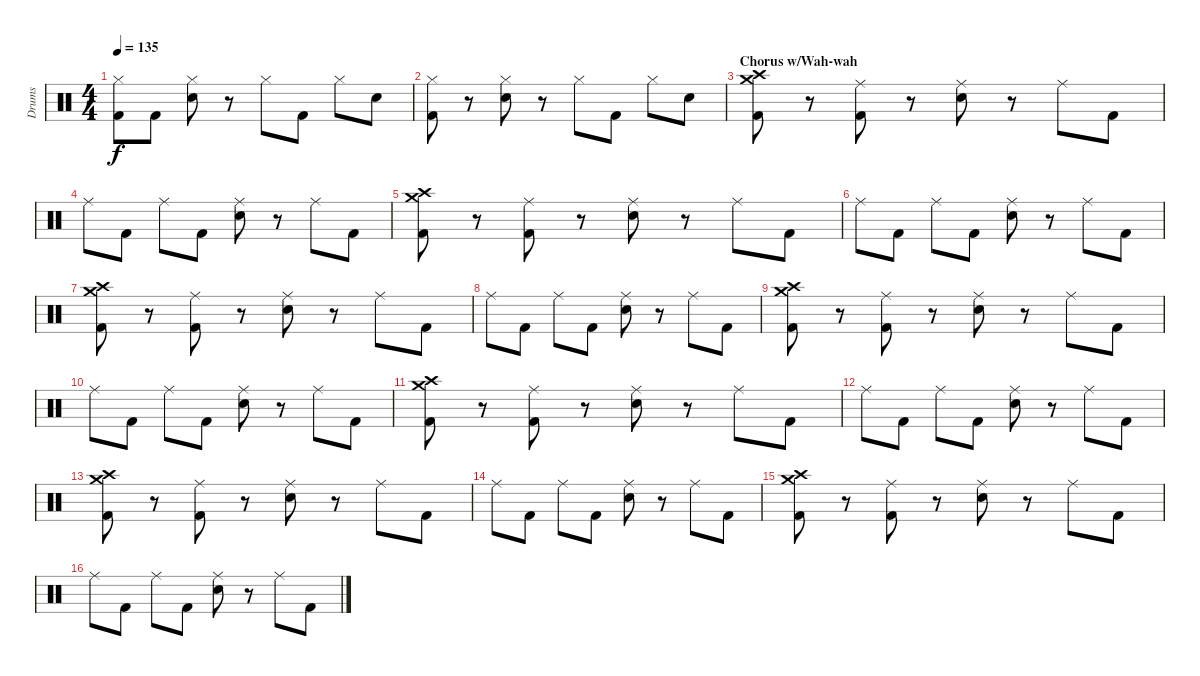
\track ("Drums" "Drums") {instrument percussion}
\staff {score}
\articulation defaults
\ts (4 4)
\tempo 135
\clef neutral
\ks c
("Hi-Hat (closed)" "Kick (hit) 2").8{dy f} "Kick (hit) 2".8 ("Hi-Hat (closed)" "Snare (hit) 2").8 r.8 "Hi-Hat (closed)".8 "Kick (hit) 2".8 "Hi-Hat (closed)".8 "Snare (hit) 2".8 |
("Hi-Hat (closed)" "Kick (hit) 2").8 r.8 ("Hi-Hat (closed)" "Snare (hit) 2").8 r.8 "Hi-Hat (closed)".8 "Kick (hit) 2".8 "Hi-Hat (closed)".8 "Snare (hit) 2".8 |
\section ("" "Chorus w/Wah-wah")
("Crash medium (hit)" "Crash high (hit)" "Kick (hit) 2").8 r.8 ("Ride (middle)" "Kick (hit) 2").8 r.8 ("Ride (middle)" "Snare (hit) 2").8 r.8 "Ride (middle)".8 "Kick (hit) 2".8 |
"Ride (middle)".8 "Kick (hit) 2".8 "Ride (middle)".8 "Kick (hit) 2".8 ("Ride (middle)" "Snare (hit) 2").8 r.8 "Ride (middle)".8 "Kick (hit) 2".8 |
("Crash medium (hit)" "Crash high (hit)" "Kick (hit) 2").8 r.8 ("Ride (middle)" "Kick (hit) 2").8 r.8 ("Ride (middle)" "Snare (hit) 2").8 r.8 "Ride (middle)".8 "Kick (hit) 2".8 |
"Ride (middle)".8 "Kick (hit) 2".8 "Ride (middle)".8 "Kick (hit) 2".8 ("Ride (middle)" "Snare (hit) 2").8 r.8 "Ride (middle)".8 "Kick (hit) 2".8 |
("Crash medium (hit)" "Crash high (hit)" "Kick (hit) 2").8 r.8 ("Ride (middle)" "Kick (hit) 2").8 r.8 ("Ride (middle)" "Snare (hit) 2").8 r.8 "Ride (middle)".8 "Kick (hit) 2".8 |
"Ride (middle)".8 "Kick (hit) 2".8 "Ride (middle)".8 "Kick (hit) 2".8 ("Ride (middle)" "Snare (hit) 2").8 r.8 "Ride (middle)".8 "Kick (hit) 2".8 |
("Crash medium (hit)" "Crash high (hit)" "Kick (hit) 2").8 r.8 ("Ride (middle)" "Kick (hit) 2").8 r.8 ("Ride (middle)" "Snare (hit) 2").8 r.8 "Ride (middle)".8 "Kick (hit) 2".8 |
"Ride (middle)".8 "Kick (hit) 2".8 "Ride (middle)".8 "Kick (hit) 2".8 ("Ride (middle)" "Snare (hit) 2").8 r.8 "Ride (middle)".8 "Kick (hit) 2".8 |
("Crash medium (hit)" "Crash high (hit)" "Kick (hit) 2").8 r.8 ("Ride (middle)" "Kick (hit) 2").8 r.8 ("Ride (middle)" "Snare (hit) 2").8 r.8 "Ride (middle)".8 "Kick (hit) 2".8 |
"Ride (middle)".8 "Kick (hit) 2".8 "Ride (middle)".8 "Kick (hit) 2".8 ("Ride (middle)" "Snare (hit) 2").8 r.8 "Ride (middle)".8 "Kick (hit) 2".8 |
("Crash medium (hit)" "Crash high (hit)" "Kick (hit) 2").8 r.8 ("Ride (middle)" "Kick (hit) 2").8 r.8 ("Ride (middle)" "Snare (hit) 2").8 r.8 "Ride (middle)".8 "Kick (hit) 2".8 |
"Ride (middle)".8 "Kick (hit) 2".8 "Ride (middle)".8 "Kick (hit) 2".8 ("Ride (middle)" "Snare (hit) 2").8 r.8 "Ride (middle)".8 "Kick (hit) 2".8 |
("Crash medium (hit)" "Crash high (hit)" "Kick (hit) 2").8 r.8 ("Ride (middle)" "Kick (hit) 2").8 r.8 ("Ride (middle)" "Snare (hit) 2").8 r.8 "Ride (middle)".8 "Kick (hit) 2".8 |
"Ride (middle)".8 "Kick (hit) 2".8 "Ride (middle)".8 "Kick (hit) 2".8 ("Ride (middle)" "Snare (hit) 2").8 r.8 "Ride (middle)".8 "Kick (hit) 2".8
